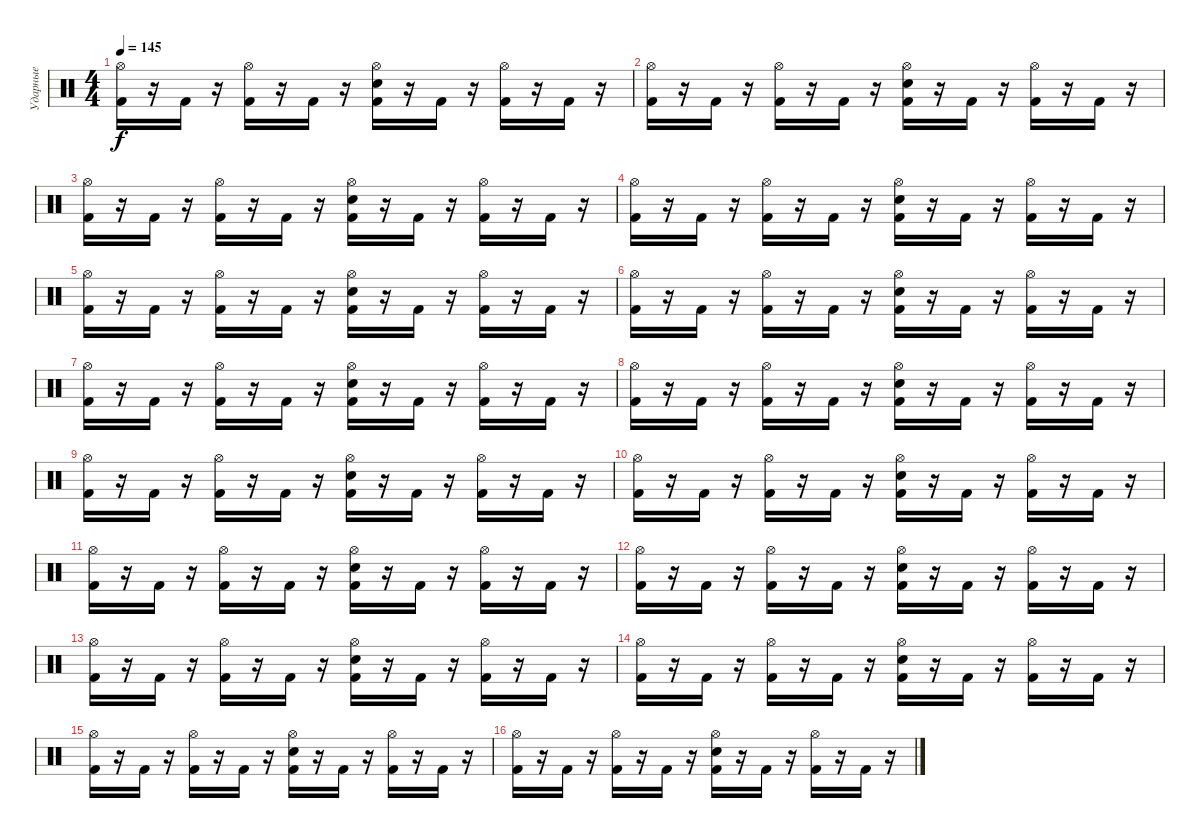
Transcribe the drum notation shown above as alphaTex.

\track ("Ударные" "Ударные") {instrument percussion}
\staff {score}
\articulation defaults
\ts (4 4)
\tempo 145
\clef neutral
\ks c
("Hi-Hat (open)" "Kick (hit) 2").16{dy f} r.16 "Kick (hit) 2".16 r.16 ("Hi-Hat (open)" "Kick (hit) 2").16 r.16 "Kick (hit) 2".16 r.16 ("Hi-Hat (open)" "Electric Snare (hit)" "Kick (hit) 2").16 r.16 "Kick (hit) 2".16 r.16 ("Hi-Hat (open)" "Kick (hit) 2").16 r.16 "Kick (hit) 2".16 r.16 |
("Hi-Hat (open)" "Kick (hit) 2").16 r.16 "Kick (hit) 2".16 r.16 ("Hi-Hat (open)" "Kick (hit) 2").16 r.16 "Kick (hit) 2".16 r.16 ("Hi-Hat (open)" "Electric Snare (hit)" "Kick (hit) 2").16 r.16 "Kick (hit) 2".16 r.16 ("Hi-Hat (open)" "Kick (hit) 2").16 r.16 "Kick (hit) 2".16 r.16 |
("Hi-Hat (open)" "Kick (hit) 2").16 r.16 "Kick (hit) 2".16 r.16 ("Hi-Hat (open)" "Kick (hit) 2").16 r.16 "Kick (hit) 2".16 r.16 ("Hi-Hat (open)" "Electric Snare (hit)" "Kick (hit) 2").16 r.16 "Kick (hit) 2".16 r.16 ("Hi-Hat (open)" "Kick (hit) 2").16 r.16 "Kick (hit) 2".16 r.16 |
("Hi-Hat (open)" "Kick (hit) 2").16 r.16 "Kick (hit) 2".16 r.16 ("Hi-Hat (open)" "Kick (hit) 2").16 r.16 "Kick (hit) 2".16 r.16 ("Hi-Hat (open)" "Electric Snare (hit)" "Kick (hit) 2").16 r.16 "Kick (hit) 2".16 r.16 ("Hi-Hat (open)" "Kick (hit) 2").16 r.16 "Kick (hit) 2".16 r.16 |
("Hi-Hat (open)" "Kick (hit) 2").16 r.16 "Kick (hit) 2".16 r.16 ("Hi-Hat (open)" "Kick (hit) 2").16 r.16 "Kick (hit) 2".16 r.16 ("Hi-Hat (open)" "Electric Snare (hit)" "Kick (hit) 2").16 r.16 "Kick (hit) 2".16 r.16 ("Hi-Hat (open)" "Kick (hit) 2").16 r.16 "Kick (hit) 2".16 r.16 |
("Hi-Hat (open)" "Kick (hit) 2").16 r.16 "Kick (hit) 2".16 r.16 ("Hi-Hat (open)" "Kick (hit) 2").16 r.16 "Kick (hit) 2".16 r.16 ("Hi-Hat (open)" "Electric Snare (hit)" "Kick (hit) 2").16 r.16 "Kick (hit) 2".16 r.16 ("Hi-Hat (open)" "Kick (hit) 2").16 r.16 "Kick (hit) 2".16 r.16 |
("Hi-Hat (open)" "Kick (hit) 2").16 r.16 "Kick (hit) 2".16 r.16 ("Hi-Hat (open)" "Kick (hit) 2").16 r.16 "Kick (hit) 2".16 r.16 ("Hi-Hat (open)" "Electric Snare (hit)" "Kick (hit) 2").16 r.16 "Kick (hit) 2".16 r.16 ("Hi-Hat (open)" "Kick (hit) 2").16 r.16 "Kick (hit) 2".16 r.16 |
("Hi-Hat (open)" "Kick (hit) 2").16 r.16 "Kick (hit) 2".16 r.16 ("Hi-Hat (open)" "Kick (hit) 2").16 r.16 "Kick (hit) 2".16 r.16 ("Hi-Hat (open)" "Electric Snare (hit)" "Kick (hit) 2").16 r.16 "Kick (hit) 2".16 r.16 ("Hi-Hat (open)" "Kick (hit) 2").16 r.16 "Kick (hit) 2".16 r.16 |
("Hi-Hat (open)" "Kick (hit) 2").16 r.16 "Kick (hit) 2".16 r.16 ("Hi-Hat (open)" "Kick (hit) 2").16 r.16 "Kick (hit) 2".16 r.16 ("Hi-Hat (open)" "Electric Snare (hit)" "Kick (hit) 2").16 r.16 "Kick (hit) 2".16 r.16 ("Hi-Hat (open)" "Kick (hit) 2").16 r.16 "Kick (hit) 2".16 r.16 |
("Hi-Hat (open)" "Kick (hit) 2").16 r.16 "Kick (hit) 2".16 r.16 ("Hi-Hat (open)" "Kick (hit) 2").16 r.16 "Kick (hit) 2".16 r.16 ("Hi-Hat (open)" "Electric Snare (hit)" "Kick (hit) 2").16 r.16 "Kick (hit) 2".16 r.16 ("Hi-Hat (open)" "Kick (hit) 2").16 r.16 "Kick (hit) 2".16 r.16 |
("Hi-Hat (open)" "Kick (hit) 2").16 r.16 "Kick (hit) 2".16 r.16 ("Hi-Hat (open)" "Kick (hit) 2").16 r.16 "Kick (hit) 2".16 r.16 ("Hi-Hat (open)" "Electric Snare (hit)" "Kick (hit) 2").16 r.16 "Kick (hit) 2".16 r.16 ("Hi-Hat (open)" "Kick (hit) 2").16 r.16 "Kick (hit) 2".16 r.16 |
("Hi-Hat (open)" "Kick (hit) 2").16 r.16 "Kick (hit) 2".16 r.16 ("Hi-Hat (open)" "Kick (hit) 2").16 r.16 "Kick (hit) 2".16 r.16 ("Hi-Hat (open)" "Electric Snare (hit)" "Kick (hit) 2").16 r.16 "Kick (hit) 2".16 r.16 ("Hi-Hat (open)" "Kick (hit) 2").16 r.16 "Kick (hit) 2".16 r.16 |
("Hi-Hat (open)" "Kick (hit) 2").16 r.16 "Kick (hit) 2".16 r.16 ("Hi-Hat (open)" "Kick (hit) 2").16 r.16 "Kick (hit) 2".16 r.16 ("Hi-Hat (open)" "Electric Snare (hit)" "Kick (hit) 2").16 r.16 "Kick (hit) 2".16 r.16 ("Hi-Hat (open)" "Kick (hit) 2").16 r.16 "Kick (hit) 2".16 r.16 |
("Hi-Hat (open)" "Kick (hit) 2").16 r.16 "Kick (hit) 2".16 r.16 ("Hi-Hat (open)" "Kick (hit) 2").16 r.16 "Kick (hit) 2".16 r.16 ("Hi-Hat (open)" "Electric Snare (hit)" "Kick (hit) 2").16 r.16 "Kick (hit) 2".16 r.16 ("Hi-Hat (open)" "Kick (hit) 2").16 r.16 "Kick (hit) 2".16 r.16 |
("Hi-Hat (open)" "Kick (hit) 2").16 r.16 "Kick (hit) 2".16 r.16 ("Hi-Hat (open)" "Kick (hit) 2").16 r.16 "Kick (hit) 2".16 r.16 ("Hi-Hat (open)" "Electric Snare (hit)" "Kick (hit) 2").16 r.16 "Kick (hit) 2".16 r.16 ("Hi-Hat (open)" "Kick (hit) 2").16 r.16 "Kick (hit) 2".16 r.16 |
("Hi-Hat (open)" "Kick (hit) 2").16 r.16 "Kick (hit) 2".16 r.16 ("Hi-Hat (open)" "Kick (hit) 2").16 r.16 "Kick (hit) 2".16 r.16 ("Hi-Hat (open)" "Electric Snare (hit)" "Kick (hit) 2").16 r.16 "Kick (hit) 2".16 r.16 ("Hi-Hat (open)" "Kick (hit) 2").16 r.16 "Kick (hit) 2".16 r.16
